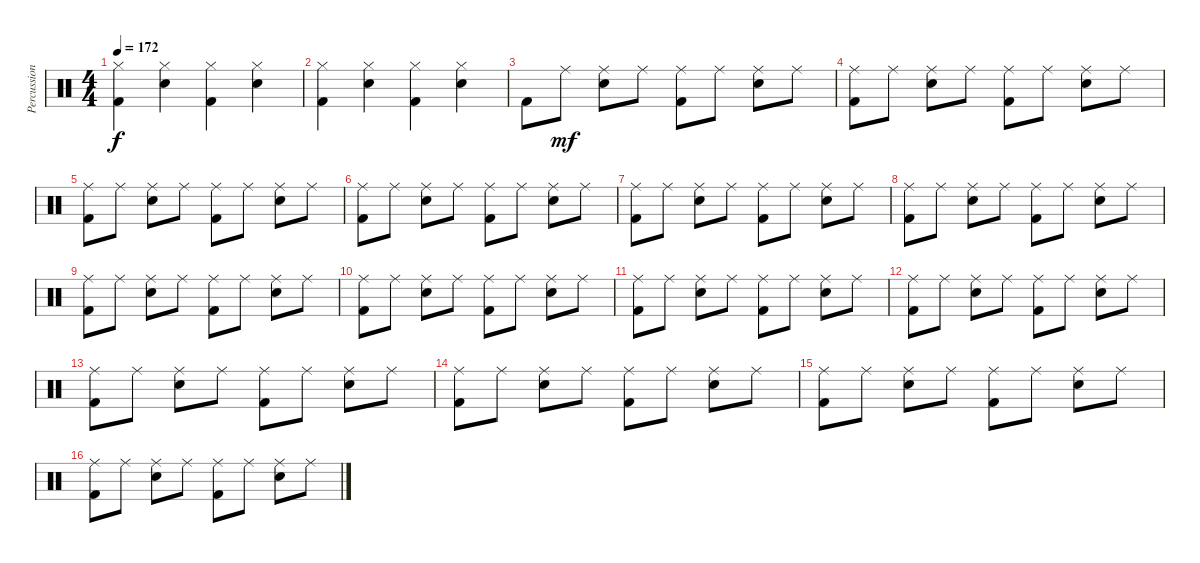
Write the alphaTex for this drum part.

\track ("Percussion" "Percussion") {instrument percussion}
\staff {score}
\articulation defaults
\ts (4 4)
\tempo 172
\clef neutral
\ks c
("Hi-Hat (closed)" "Kick (hit) 2").4{dy f} ("Hi-Hat (closed)" "Snare (hit) 2").4 ("Hi-Hat (closed)" "Kick (hit) 2").4 ("Hi-Hat (closed)" "Snare (hit) 2").4 |
("Hi-Hat (closed)" "Kick (hit) 2").4 ("Hi-Hat (closed)" "Snare (hit) 2").4 ("Hi-Hat (closed)" "Kick (hit) 2").4 ("Hi-Hat (closed)" "Snare (hit) 2").4 |
"Kick (hit) 2".8 "Ride (middle)".8{dy mf} ("Ride (middle)" "Snare (hit) 2").8 "Ride (middle)".8 ("Ride (middle)" "Kick (hit) 2").8 "Ride (middle)".8 ("Ride (middle)" "Snare (hit) 2").8 "Ride (middle)".8 |
("Ride (middle)" "Kick (hit) 2").8 "Ride (middle)".8 ("Ride (middle)" "Snare (hit) 2").8 "Ride (middle)".8 ("Ride (middle)" "Kick (hit) 2").8 "Ride (middle)".8 ("Ride (middle)" "Snare (hit) 2").8 "Ride (middle)".8 |
("Ride (middle)" "Kick (hit) 2").8 "Ride (middle)".8 ("Ride (middle)" "Snare (hit) 2").8 "Ride (middle)".8 ("Ride (middle)" "Kick (hit) 2").8 "Ride (middle)".8 ("Ride (middle)" "Snare (hit) 2").8 "Ride (middle)".8 |
("Ride (middle)" "Kick (hit) 2").8 "Ride (middle)".8 ("Ride (middle)" "Snare (hit) 2").8 "Ride (middle)".8 ("Ride (middle)" "Kick (hit) 2").8 "Ride (middle)".8 ("Ride (middle)" "Snare (hit) 2").8 "Ride (middle)".8 |
("Ride (middle)" "Kick (hit) 2").8 "Ride (middle)".8 ("Ride (middle)" "Snare (hit) 2").8 "Ride (middle)".8 ("Ride (middle)" "Kick (hit) 2").8 "Ride (middle)".8 ("Ride (middle)" "Snare (hit) 2").8 "Ride (middle)".8 |
("Ride (middle)" "Kick (hit) 2").8 "Ride (middle)".8 ("Ride (middle)" "Snare (hit) 2").8 "Ride (middle)".8 ("Ride (middle)" "Kick (hit) 2").8 "Ride (middle)".8 ("Ride (middle)" "Snare (hit) 2").8 "Ride (middle)".8 |
("Ride (middle)" "Kick (hit) 2").8 "Ride (middle)".8 ("Ride (middle)" "Snare (hit) 2").8 "Ride (middle)".8 ("Ride (middle)" "Kick (hit) 2").8 "Ride (middle)".8 ("Ride (middle)" "Snare (hit) 2").8 "Ride (middle)".8 |
("Ride (middle)" "Kick (hit) 2").8 "Ride (middle)".8 ("Ride (middle)" "Snare (hit) 2").8 "Ride (middle)".8 ("Ride (middle)" "Kick (hit) 2").8 "Ride (middle)".8 ("Ride (middle)" "Snare (hit) 2").8 "Ride (middle)".8 |
("Ride (middle)" "Kick (hit) 2").8 "Ride (middle)".8 ("Ride (middle)" "Snare (hit) 2").8 "Ride (middle)".8 ("Ride (middle)" "Kick (hit) 2").8 "Ride (middle)".8 ("Ride (middle)" "Snare (hit) 2").8 "Ride (middle)".8 |
("Ride (middle)" "Kick (hit) 2").8 "Ride (middle)".8 ("Ride (middle)" "Snare (hit) 2").8 "Ride (middle)".8 ("Ride (middle)" "Kick (hit) 2").8 "Ride (middle)".8 ("Ride (middle)" "Snare (hit) 2").8 "Ride (middle)".8 |
("Ride (middle)" "Kick (hit) 2").8 "Ride (middle)".8 ("Ride (middle)" "Snare (hit) 2").8 "Ride (middle)".8 ("Ride (middle)" "Kick (hit) 2").8 "Ride (middle)".8 ("Ride (middle)" "Snare (hit) 2").8 "Ride (middle)".8 |
("Ride (middle)" "Kick (hit) 2").8 "Ride (middle)".8 ("Ride (middle)" "Snare (hit) 2").8 "Ride (middle)".8 ("Ride (middle)" "Kick (hit) 2").8 "Ride (middle)".8 ("Ride (middle)" "Snare (hit) 2").8 "Ride (middle)".8 |
("Ride (middle)" "Kick (hit) 2").8 "Ride (middle)".8 ("Ride (middle)" "Snare (hit) 2").8 "Ride (middle)".8 ("Ride (middle)" "Kick (hit) 2").8 "Ride (middle)".8 ("Ride (middle)" "Snare (hit) 2").8 "Ride (middle)".8 |
("Ride (middle)" "Kick (hit) 2").8 "Ride (middle)".8 ("Ride (middle)" "Snare (hit) 2").8 "Ride (middle)".8 ("Ride (middle)" "Kick (hit) 2").8 "Ride (middle)".8 ("Ride (middle)" "Snare (hit) 2").8 "Ride (middle)".8
